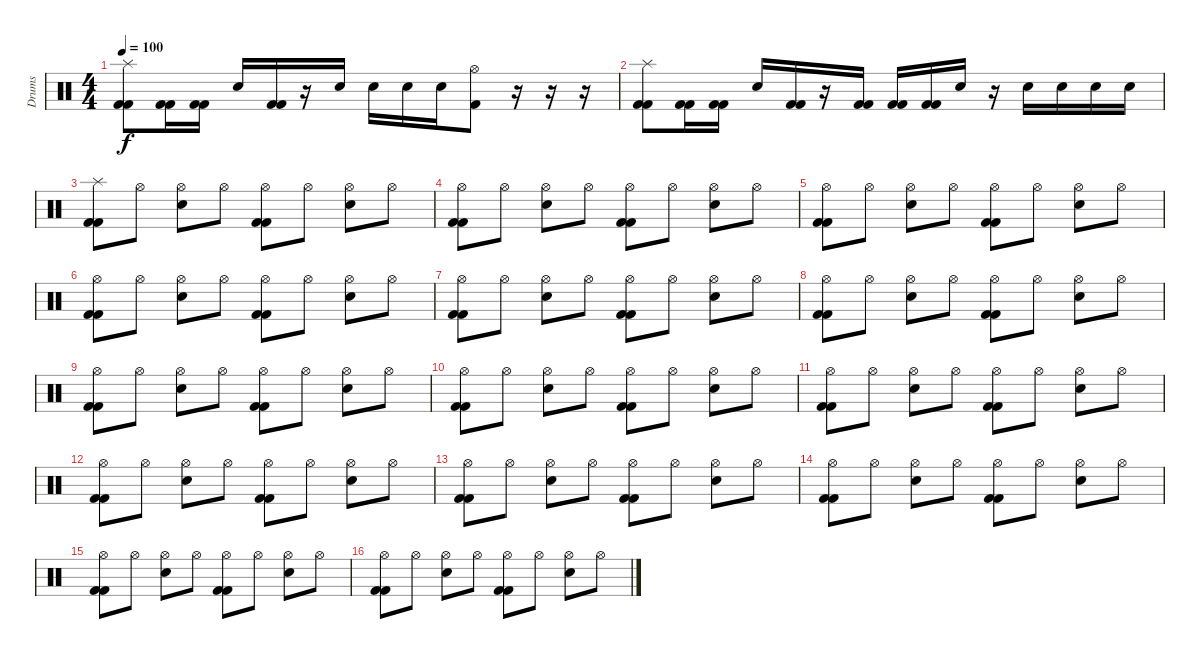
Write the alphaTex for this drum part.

\track ("Drums" "Drums") {instrument percussion}
\staff {score}
\articulation defaults
\ts (4 4)
\tempo 100
\clef neutral
\ks c
("Splash (hit)" "Kick (hit) 2" "Kick (hit) 2").8{dy f} ("Kick (hit) 2" "Kick (hit) 2").16 ("Kick (hit) 2" "Kick (hit) 2").16 "Electric Snare (hit)".16 ("Kick (hit) 2" "Kick (hit) 2").16 r.16 "Electric Snare (hit)".16 "Electric Snare (hit)".16 "Electric Snare (hit)".16 "Electric Snare (hit)".16 ("Hi-Hat (open)" "Kick (hit) 2").8 r.16 r.16 r.16 |
("Splash (hit)" "Kick (hit) 2" "Kick (hit) 2").8 ("Kick (hit) 2" "Kick (hit) 2").16 ("Kick (hit) 2" "Kick (hit) 2").16 "Electric Snare (hit)".16 ("Kick (hit) 2" "Kick (hit) 2").16 r.16 ("Kick (hit) 2" "Kick (hit) 2").16 ("Kick (hit) 2" "Kick (hit) 2").16 ("Kick (hit) 2" "Kick (hit) 2").16 "Electric Snare (hit)".16 r.16 "Electric Snare (hit)".16 "Electric Snare (hit)".16 "Electric Snare (hit)".16 "Electric Snare (hit)".16 |
("Splash (hit)" "Kick (hit) 2" "Kick (hit) 2").8 "Hi-Hat (open)".8 ("Hi-Hat (open)" "Electric Snare (hit)").8 "Hi-Hat (open)".8 ("Hi-Hat (open)" "Kick (hit) 2" "Kick (hit) 2").8 "Hi-Hat (open)".8 ("Hi-Hat (open)" "Electric Snare (hit)").8 "Hi-Hat (open)".8 |
("Hi-Hat (open)" "Kick (hit) 2" "Kick (hit) 2").8 "Hi-Hat (open)".8 ("Hi-Hat (open)" "Electric Snare (hit)").8 "Hi-Hat (open)".8 ("Hi-Hat (open)" "Kick (hit) 2" "Kick (hit) 2").8 "Hi-Hat (open)".8 ("Hi-Hat (open)" "Electric Snare (hit)").8 "Hi-Hat (open)".8 |
("Hi-Hat (open)" "Kick (hit) 2" "Kick (hit) 2").8 "Hi-Hat (open)".8 ("Hi-Hat (open)" "Electric Snare (hit)").8 "Hi-Hat (open)".8 ("Hi-Hat (open)" "Kick (hit) 2" "Kick (hit) 2").8 "Hi-Hat (open)".8 ("Hi-Hat (open)" "Electric Snare (hit)").8 "Hi-Hat (open)".8 |
("Hi-Hat (open)" "Kick (hit) 2" "Kick (hit) 2").8 "Hi-Hat (open)".8 ("Hi-Hat (open)" "Electric Snare (hit)").8 "Hi-Hat (open)".8 ("Hi-Hat (open)" "Kick (hit) 2" "Kick (hit) 2").8 "Hi-Hat (open)".8 ("Hi-Hat (open)" "Electric Snare (hit)").8 "Hi-Hat (open)".8 |
("Hi-Hat (open)" "Kick (hit) 2" "Kick (hit) 2").8 "Hi-Hat (open)".8 ("Hi-Hat (open)" "Electric Snare (hit)").8 "Hi-Hat (open)".8 ("Hi-Hat (open)" "Kick (hit) 2" "Kick (hit) 2").8 "Hi-Hat (open)".8 ("Hi-Hat (open)" "Electric Snare (hit)").8 "Hi-Hat (open)".8 |
("Hi-Hat (open)" "Kick (hit) 2" "Kick (hit) 2").8 "Hi-Hat (open)".8 ("Hi-Hat (open)" "Electric Snare (hit)").8 "Hi-Hat (open)".8 ("Hi-Hat (open)" "Kick (hit) 2" "Kick (hit) 2").8 "Hi-Hat (open)".8 ("Hi-Hat (open)" "Electric Snare (hit)").8 "Hi-Hat (open)".8 |
("Hi-Hat (open)" "Kick (hit) 2" "Kick (hit) 2").8 "Hi-Hat (open)".8 ("Hi-Hat (open)" "Electric Snare (hit)").8 "Hi-Hat (open)".8 ("Hi-Hat (open)" "Kick (hit) 2" "Kick (hit) 2").8 "Hi-Hat (open)".8 ("Hi-Hat (open)" "Electric Snare (hit)").8 "Hi-Hat (open)".8 |
("Hi-Hat (open)" "Kick (hit) 2" "Kick (hit) 2").8 "Hi-Hat (open)".8 ("Hi-Hat (open)" "Electric Snare (hit)").8 "Hi-Hat (open)".8 ("Hi-Hat (open)" "Kick (hit) 2" "Kick (hit) 2").8 "Hi-Hat (open)".8 ("Hi-Hat (open)" "Electric Snare (hit)").8 "Hi-Hat (open)".8 |
("Hi-Hat (open)" "Kick (hit) 2" "Kick (hit) 2").8 "Hi-Hat (open)".8 ("Hi-Hat (open)" "Electric Snare (hit)").8 "Hi-Hat (open)".8 ("Hi-Hat (open)" "Kick (hit) 2" "Kick (hit) 2").8 "Hi-Hat (open)".8 ("Hi-Hat (open)" "Electric Snare (hit)").8 "Hi-Hat (open)".8 |
("Hi-Hat (open)" "Kick (hit) 2" "Kick (hit) 2").8 "Hi-Hat (open)".8 ("Hi-Hat (open)" "Electric Snare (hit)").8 "Hi-Hat (open)".8 ("Hi-Hat (open)" "Kick (hit) 2" "Kick (hit) 2").8 "Hi-Hat (open)".8 ("Hi-Hat (open)" "Electric Snare (hit)").8 "Hi-Hat (open)".8 |
("Hi-Hat (open)" "Kick (hit) 2" "Kick (hit) 2").8 "Hi-Hat (open)".8 ("Hi-Hat (open)" "Electric Snare (hit)").8 "Hi-Hat (open)".8 ("Hi-Hat (open)" "Kick (hit) 2" "Kick (hit) 2").8 "Hi-Hat (open)".8 ("Hi-Hat (open)" "Electric Snare (hit)").8 "Hi-Hat (open)".8 |
("Hi-Hat (open)" "Kick (hit) 2" "Kick (hit) 2").8 "Hi-Hat (open)".8 ("Hi-Hat (open)" "Electric Snare (hit)").8 "Hi-Hat (open)".8 ("Hi-Hat (open)" "Kick (hit) 2" "Kick (hit) 2").8 "Hi-Hat (open)".8 ("Hi-Hat (open)" "Electric Snare (hit)").8 "Hi-Hat (open)".8 |
("Hi-Hat (open)" "Kick (hit) 2" "Kick (hit) 2").8 "Hi-Hat (open)".8 ("Hi-Hat (open)" "Electric Snare (hit)").8 "Hi-Hat (open)".8 ("Hi-Hat (open)" "Kick (hit) 2" "Kick (hit) 2").8 "Hi-Hat (open)".8 ("Hi-Hat (open)" "Electric Snare (hit)").8 "Hi-Hat (open)".8 |
("Hi-Hat (open)" "Kick (hit) 2" "Kick (hit) 2").8 "Hi-Hat (open)".8 ("Hi-Hat (open)" "Electric Snare (hit)").8 "Hi-Hat (open)".8 ("Hi-Hat (open)" "Kick (hit) 2" "Kick (hit) 2").8 "Hi-Hat (open)".8 ("Hi-Hat (open)" "Electric Snare (hit)").8 "Hi-Hat (open)".8
